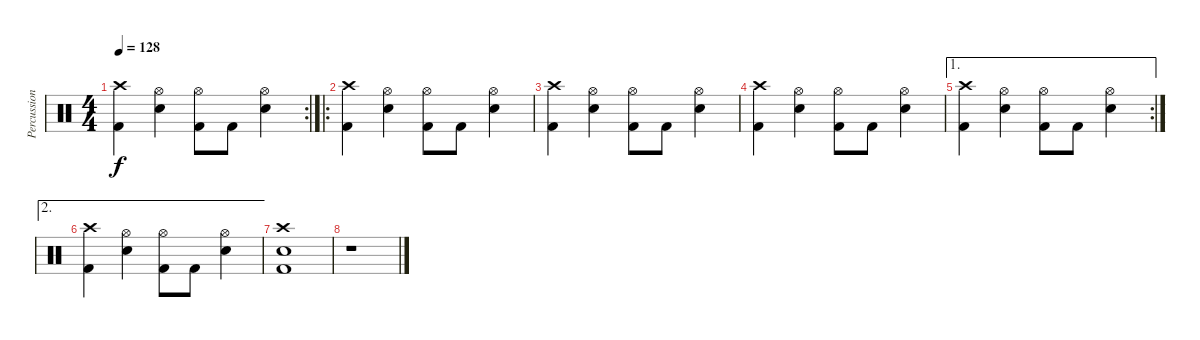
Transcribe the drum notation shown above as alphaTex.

\track ("Percussion" "Percussion") {instrument percussion}
\staff {score}
\articulation defaults
\rc 2
\ts (4 4)
\tempo 128
\clef neutral
\ks c
("Crash high (hit)" "Kick (hit) 2").4{dy f} ("Hi-Hat (open)" "Electric Snare (hit)").4 ("Hi-Hat (open)" "Kick (hit) 2").8 "Kick (hit) 2".8 ("Hi-Hat (open)" "Electric Snare (hit)").4 |
\ro
("Crash high (hit)" "Kick (hit) 2").4 ("Hi-Hat (open)" "Electric Snare (hit)").4 ("Hi-Hat (open)" "Kick (hit) 2").8 "Kick (hit) 2".8 ("Hi-Hat (open)" "Electric Snare (hit)").4 |
("Crash high (hit)" "Kick (hit) 2").4 ("Hi-Hat (open)" "Electric Snare (hit)").4 ("Hi-Hat (open)" "Kick (hit) 2").8 "Kick (hit) 2".8 ("Hi-Hat (open)" "Electric Snare (hit)").4 |
("Crash high (hit)" "Kick (hit) 2").4 ("Hi-Hat (open)" "Electric Snare (hit)").4 ("Hi-Hat (open)" "Kick (hit) 2").8 "Kick (hit) 2".8 ("Hi-Hat (open)" "Electric Snare (hit)").4 |
\ae 1
\rc 2
("Crash high (hit)" "Kick (hit) 2").4 ("Hi-Hat (open)" "Electric Snare (hit)").4 ("Hi-Hat (open)" "Kick (hit) 2").8 "Kick (hit) 2".8 ("Hi-Hat (open)" "Electric Snare (hit)").4 |
\ae 2
("Crash high (hit)" "Kick (hit) 2").4 ("Hi-Hat (open)" "Electric Snare (hit)").4 ("Hi-Hat (open)" "Kick (hit) 2").8 "Kick (hit) 2".8 ("Hi-Hat (open)" "Electric Snare (hit)").4 |
("Crash high (hit)" "Electric Snare (hit)" "Kick (hit) 2").1 |
r.1
